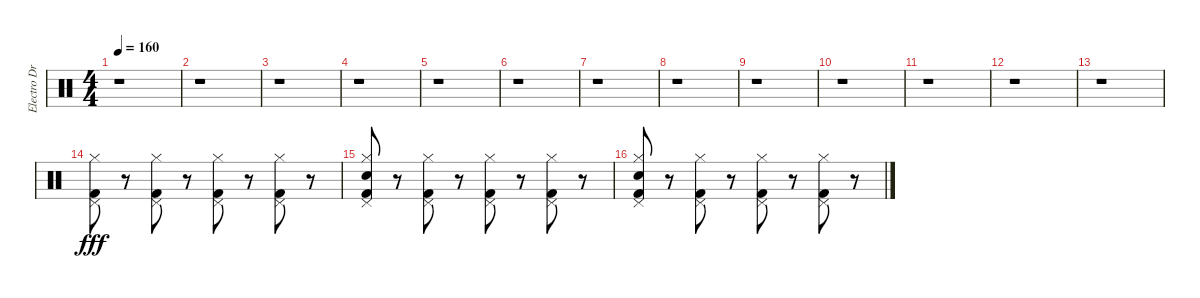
\track ("Electro Drums" "Electro Dr") {instrument percussion}
\staff {score}
\articulation defaults
\ts (4 4)
\tempo 160
\clef neutral
\ks c
r.1{dy fff} |
r.1 |
r.1 |
r.1 |
r.1 |
r.1 |
r.1 |
r.1 |
r.1 |
r.1 |
r.1 |
r.1 |
r.1 |
("Kick (hit) 2" "Pedal Hi-Hat (hit)" "Hi-Hat (closed)").8 r.8 ("Kick (hit) 2" "Pedal Hi-Hat (hit)" "Hi-Hat (closed)").8 r.8 ("Kick (hit) 2" "Pedal Hi-Hat (hit)" "Hi-Hat (closed)").8 r.8 ("Kick (hit) 2" "Pedal Hi-Hat (hit)" "Hi-Hat (closed)").8 r.8 |
("Kick (hit) 2" "Pedal Hi-Hat (hit)" "Hi-Hat (closed)" "Hand Clap (hit)").8 r.8 ("Kick (hit) 2" "Pedal Hi-Hat (hit)" "Hi-Hat (closed)").8 r.8 ("Kick (hit) 2" "Pedal Hi-Hat (hit)" "Hi-Hat (closed)").8 r.8 ("Kick (hit) 2" "Pedal Hi-Hat (hit)" "Hi-Hat (closed)").8 r.8 |
("Kick (hit) 2" "Pedal Hi-Hat (hit)" "Hi-Hat (closed)" "Hand Clap (hit)").8 r.8 ("Kick (hit) 2" "Pedal Hi-Hat (hit)" "Hi-Hat (closed)").8 r.8 ("Kick (hit) 2" "Pedal Hi-Hat (hit)" "Hi-Hat (closed)").8 r.8 ("Kick (hit) 2" "Pedal Hi-Hat (hit)" "Hi-Hat (closed)").8 r.8
